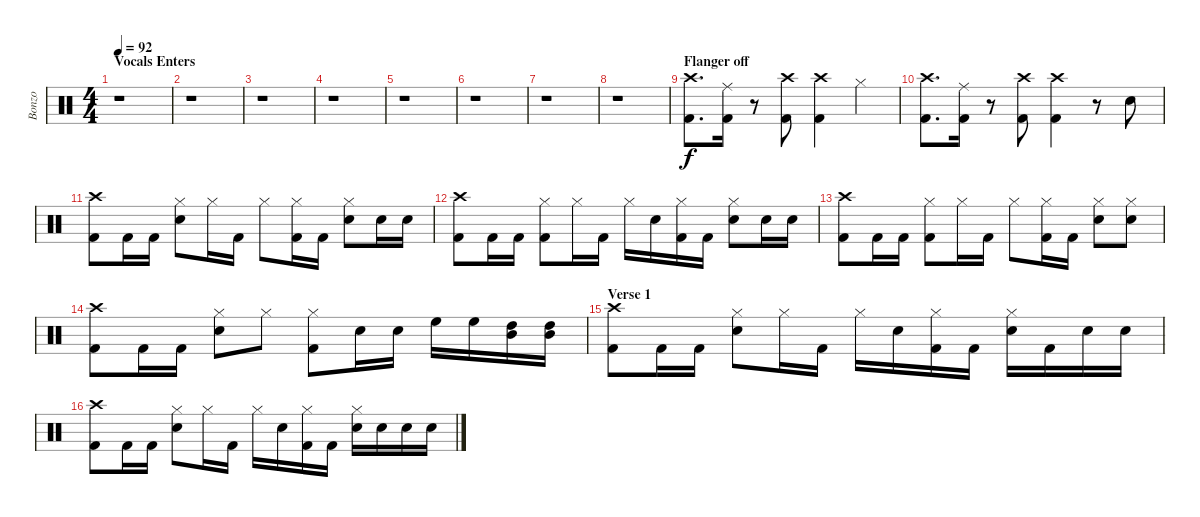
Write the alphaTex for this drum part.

\track ("Bonzo" "Bonzo") {instrument percussion}
\staff {score}
\articulation defaults
\ts (4 4)
\section ("" "Vocals Enters")
\tempo 92
\clef neutral
\ks c
r.1{dy f} |
r.1 |
r.1 |
r.1 |
r.1 |
r.1 |
r.1 |
r.1 |
\section ("" "Flanger off")
("Crash high (hit)" "Kick (hit) 2").8{d} ("Ride (middle)" "Kick (hit) 2").16 r.8 ("Crash high (hit)" "Kick (hit) 2").8 ("Crash high (hit)" "Kick (hit) 2").4 "Hi-Hat (closed)".4 |
("Crash high (hit)" "Kick (hit) 2").8{d} ("Ride (middle)" "Kick (hit) 2").16 r.8 ("Crash high (hit)" "Kick (hit) 2").8 ("Crash high (hit)" "Kick (hit) 2").4 r.8 "Snare (hit) 2".8 |
("Crash high (hit)" "Kick (hit) 2").8 "Kick (hit) 2".16 "Kick (hit) 2".16 ("Hi-Hat (closed)" "Snare (hit) 2").8 "Hi-Hat (closed)".16 "Kick (hit) 2".16 "Hi-Hat (closed)".8 ("Hi-Hat (closed)" "Kick (hit) 2").16 "Kick (hit) 2".16 ("Hi-Hat (closed)" "Snare (hit) 2").8 "Snare (hit) 2".16 "Snare (hit) 2".16 |
("Crash high (hit)" "Kick (hit) 2").8 "Kick (hit) 2".16 "Kick (hit) 2".16 ("Hi-Hat (closed)" "Kick (hit) 2").8 "Hi-Hat (closed)".16 "Kick (hit) 2".16 "Hi-Hat (closed)".16 "Snare (hit) 2".16 ("Hi-Hat (closed)" "Kick (hit) 2").16 "Kick (hit) 2".16 ("Hi-Hat (closed)" "Snare (hit) 2").8 "Snare (hit) 2".16 "Snare (hit) 2".16 |
("Crash high (hit)" "Kick (hit) 2").8 "Kick (hit) 2".16 "Kick (hit) 2".16 ("Hi-Hat (closed)" "Kick (hit) 2").8 "Hi-Hat (closed)".16 "Kick (hit) 2".16 "Hi-Hat (closed)".8 ("Hi-Hat (closed)" "Kick (hit) 2").16 "Kick (hit) 2".16 ("Hi-Hat (closed)" "Snare (hit) 2").8 ("Hi-Hat (closed)" "Snare (hit) 2").8 |
("Crash high (hit)" "Kick (hit) 2").8 "Kick (hit) 2".16 "Kick (hit) 2".16 ("Hi-Hat (closed)" "Snare (hit) 2").8 "Hi-Hat (closed)".8 ("Hi-Hat (closed)" "Kick (hit) 2").8 "Snare (hit) 2".16 "Snare (hit) 2".16 "High Floor Tom (hit)".16 "High Floor Tom (hit)".16 ("High Tom (hit)" "Mid Tom (hit)").16 ("High Tom (hit)" "Mid Tom (hit)").16 |
\section ("" "Verse 1")
("Crash high (hit)" "Kick (hit) 2").8 "Kick (hit) 2".16 "Kick (hit) 2".16 ("Hi-Hat (closed)" "Snare (hit) 2").8 "Hi-Hat (closed)".16 "Kick (hit) 2".16 "Hi-Hat (closed)".16 "Snare (hit) 2".16 ("Hi-Hat (closed)" "Kick (hit) 2").16 "Kick (hit) 2".16 ("Hi-Hat (closed)" "Snare (hit) 2").16 "Kick (hit) 2".16 "Snare (hit) 2".16 "Snare (hit) 2".16 |
("Crash high (hit)" "Kick (hit) 2").8 "Kick (hit) 2".16 "Kick (hit) 2".16 ("Hi-Hat (closed)" "Snare (hit) 2").8 "Hi-Hat (closed)".16 "Kick (hit) 2".16 "Hi-Hat (closed)".16 "Snare (hit) 2".16 ("Hi-Hat (closed)" "Kick (hit) 2").16 "Kick (hit) 2".16 ("Hi-Hat (closed)" "Snare (hit) 2").16 "Snare (hit) 2".16 "Snare (hit) 2".16 "Snare (hit) 2".16
